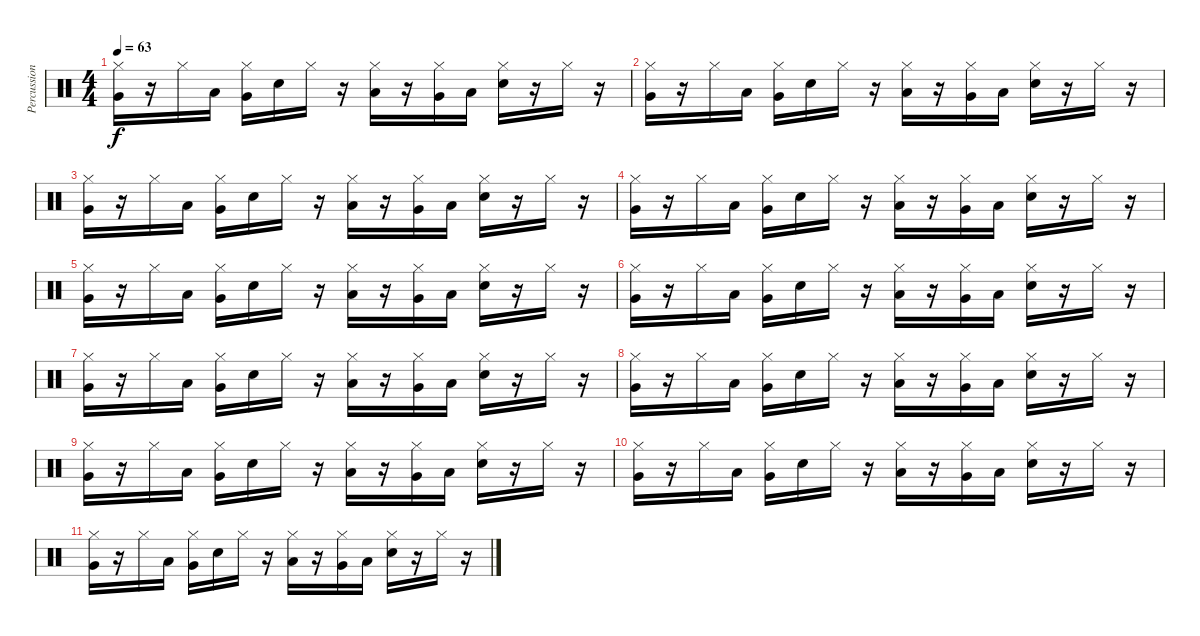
\track ("Percussion" "Percussion") {instrument percussion}
\staff {score}
\articulation defaults
\ts (4 4)
\tempo 63
\clef neutral
\ks c
("Hi-Hat (closed)" "Very Low Tom (hit)").16{dy f} r.16 "Hi-Hat (closed)".16 "Low Floor Tom (hit)".16 ("Hi-Hat (closed)" "Very Low Tom (hit)").16 "Electric Snare (hit)".16 "Hi-Hat (closed)".16 r.16 ("Hi-Hat (closed)" "Low Floor Tom (hit)").16 r.16 ("Hi-Hat (closed)" "Very Low Tom (hit)").16 "Low Floor Tom (hit)".16 ("Hi-Hat (closed)" "Electric Snare (hit)").16 r.16 "Hi-Hat (closed)".16 r.16 |
("Hi-Hat (closed)" "Very Low Tom (hit)").16 r.16 "Hi-Hat (closed)".16 "Low Floor Tom (hit)".16 ("Hi-Hat (closed)" "Very Low Tom (hit)").16 "Electric Snare (hit)".16 "Hi-Hat (closed)".16 r.16 ("Hi-Hat (closed)" "Low Floor Tom (hit)").16 r.16 ("Hi-Hat (closed)" "Very Low Tom (hit)").16 "Low Floor Tom (hit)".16 ("Hi-Hat (closed)" "Electric Snare (hit)").16 r.16 "Hi-Hat (closed)".16 r.16 |
("Hi-Hat (closed)" "Very Low Tom (hit)").16 r.16 "Hi-Hat (closed)".16 "Low Floor Tom (hit)".16 ("Hi-Hat (closed)" "Very Low Tom (hit)").16 "Electric Snare (hit)".16 "Hi-Hat (closed)".16 r.16 ("Hi-Hat (closed)" "Low Floor Tom (hit)").16 r.16 ("Hi-Hat (closed)" "Very Low Tom (hit)").16 "Low Floor Tom (hit)".16 ("Hi-Hat (closed)" "Electric Snare (hit)").16 r.16 "Hi-Hat (closed)".16 r.16 |
("Hi-Hat (closed)" "Very Low Tom (hit)").16 r.16 "Hi-Hat (closed)".16 "Low Floor Tom (hit)".16 ("Hi-Hat (closed)" "Very Low Tom (hit)").16 "Electric Snare (hit)".16 "Hi-Hat (closed)".16 r.16 ("Hi-Hat (closed)" "Low Floor Tom (hit)").16 r.16 ("Hi-Hat (closed)" "Very Low Tom (hit)").16 "Low Floor Tom (hit)".16 ("Hi-Hat (closed)" "Electric Snare (hit)").16 r.16 "Hi-Hat (closed)".16 r.16 |
("Hi-Hat (closed)" "Very Low Tom (hit)").16 r.16 "Hi-Hat (closed)".16 "Low Floor Tom (hit)".16 ("Hi-Hat (closed)" "Very Low Tom (hit)").16 "Electric Snare (hit)".16 "Hi-Hat (closed)".16 r.16 ("Hi-Hat (closed)" "Low Floor Tom (hit)").16 r.16 ("Hi-Hat (closed)" "Very Low Tom (hit)").16 "Low Floor Tom (hit)".16 ("Hi-Hat (closed)" "Electric Snare (hit)").16 r.16 "Hi-Hat (closed)".16 r.16 |
("Hi-Hat (closed)" "Very Low Tom (hit)").16 r.16 "Hi-Hat (closed)".16 "Low Floor Tom (hit)".16 ("Hi-Hat (closed)" "Very Low Tom (hit)").16 "Electric Snare (hit)".16 "Hi-Hat (closed)".16 r.16 ("Hi-Hat (closed)" "Low Floor Tom (hit)").16 r.16 ("Hi-Hat (closed)" "Very Low Tom (hit)").16 "Low Floor Tom (hit)".16 ("Hi-Hat (closed)" "Electric Snare (hit)").16 r.16 "Hi-Hat (closed)".16 r.16 |
("Hi-Hat (closed)" "Very Low Tom (hit)").16 r.16 "Hi-Hat (closed)".16 "Low Floor Tom (hit)".16 ("Hi-Hat (closed)" "Very Low Tom (hit)").16 "Electric Snare (hit)".16 "Hi-Hat (closed)".16 r.16 ("Hi-Hat (closed)" "Low Floor Tom (hit)").16 r.16 ("Hi-Hat (closed)" "Very Low Tom (hit)").16 "Low Floor Tom (hit)".16 ("Hi-Hat (closed)" "Electric Snare (hit)").16 r.16 "Hi-Hat (closed)".16 r.16 |
("Hi-Hat (closed)" "Very Low Tom (hit)").16 r.16 "Hi-Hat (closed)".16 "Low Floor Tom (hit)".16 ("Hi-Hat (closed)" "Very Low Tom (hit)").16 "Electric Snare (hit)".16 "Hi-Hat (closed)".16 r.16 ("Hi-Hat (closed)" "Low Floor Tom (hit)").16 r.16 ("Hi-Hat (closed)" "Very Low Tom (hit)").16 "Low Floor Tom (hit)".16 ("Hi-Hat (closed)" "Electric Snare (hit)").16 r.16 "Hi-Hat (closed)".16 r.16 |
("Hi-Hat (closed)" "Very Low Tom (hit)").16 r.16 "Hi-Hat (closed)".16 "Low Floor Tom (hit)".16 ("Hi-Hat (closed)" "Very Low Tom (hit)").16 "Electric Snare (hit)".16 "Hi-Hat (closed)".16 r.16 ("Hi-Hat (closed)" "Low Floor Tom (hit)").16 r.16 ("Hi-Hat (closed)" "Very Low Tom (hit)").16 "Low Floor Tom (hit)".16 ("Hi-Hat (closed)" "Electric Snare (hit)").16 r.16 "Hi-Hat (closed)".16 r.16 |
("Hi-Hat (closed)" "Very Low Tom (hit)").16 r.16 "Hi-Hat (closed)".16 "Low Floor Tom (hit)".16 ("Hi-Hat (closed)" "Very Low Tom (hit)").16 "Electric Snare (hit)".16 "Hi-Hat (closed)".16 r.16 ("Hi-Hat (closed)" "Low Floor Tom (hit)").16 r.16 ("Hi-Hat (closed)" "Very Low Tom (hit)").16 "Low Floor Tom (hit)".16 ("Hi-Hat (closed)" "Electric Snare (hit)").16 r.16 "Hi-Hat (closed)".16 r.16 |
("Hi-Hat (closed)" "Very Low Tom (hit)").16 r.16 "Hi-Hat (closed)".16 "Low Floor Tom (hit)".16 ("Hi-Hat (closed)" "Very Low Tom (hit)").16 "Electric Snare (hit)".16 "Hi-Hat (closed)".16 r.16 ("Hi-Hat (closed)" "Low Floor Tom (hit)").16 r.16 ("Hi-Hat (closed)" "Very Low Tom (hit)").16 "Low Floor Tom (hit)".16 ("Hi-Hat (closed)" "Electric Snare (hit)").16 r.16 "Hi-Hat (closed)".16 r.16
